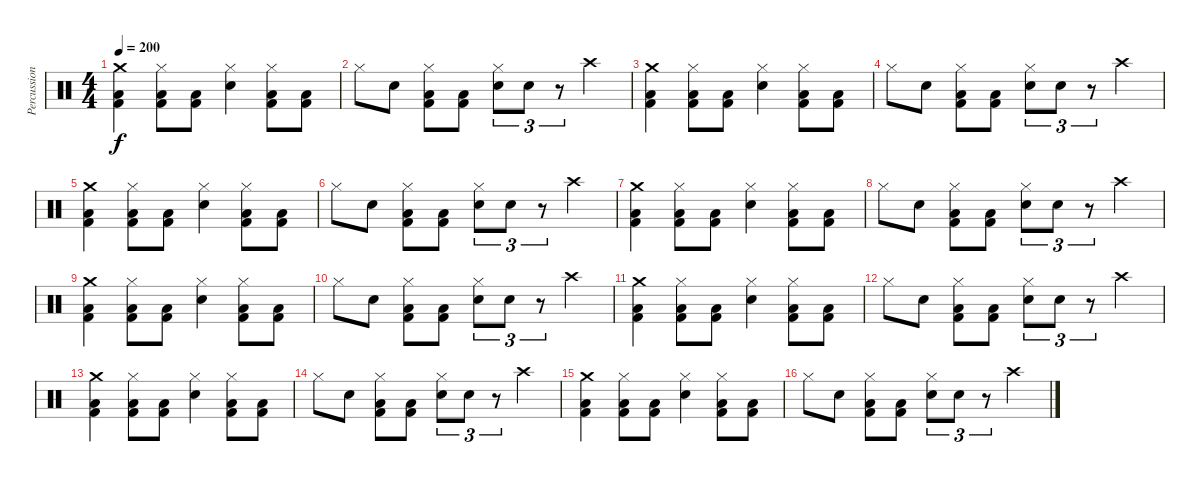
\track ("Percussions" "Percussion") {instrument percussion}
\staff {score}
\articulation defaults
\ts (4 4)
\tempo 200
\clef neutral
\ks c
("Kick (hit) 2" "Low Floor Tom (hit)" "Crash medium (hit)").4{dy f} ("Kick (hit) 2" "Low Floor Tom (hit)" "Hi-Hat (closed)").8 ("Kick (hit) 2" "Low Floor Tom (hit)").8 ("Snare (hit) 2" "Hi-Hat (closed)").4 ("Kick (hit) 2" "Low Floor Tom (hit)" "Hi-Hat (closed)").8 ("Kick (hit) 2" "Low Floor Tom (hit)").8 |
"Hi-Hat (closed)".8 "Snare (hit) 2".8 ("Kick (hit) 2" "Low Floor Tom (hit)" "Hi-Hat (closed)").8 ("Kick (hit) 2" "Low Floor Tom (hit)").8 ("Snare (hit) 2" "Hi-Hat (closed)").8{tu (3 2)} "Snare (hit) 2".8{tu (3 2)} r.8{tu (3 2)} "Crash high (hit)".4 |
("Kick (hit) 2" "Low Floor Tom (hit)" "Crash medium (hit)").4 ("Kick (hit) 2" "Low Floor Tom (hit)" "Hi-Hat (closed)").8 ("Kick (hit) 2" "Low Floor Tom (hit)").8 ("Snare (hit) 2" "Hi-Hat (closed)").4 ("Kick (hit) 2" "Low Floor Tom (hit)" "Hi-Hat (closed)").8 ("Kick (hit) 2" "Low Floor Tom (hit)").8 |
"Hi-Hat (closed)".8 "Snare (hit) 2".8 ("Kick (hit) 2" "Low Floor Tom (hit)" "Hi-Hat (closed)").8 ("Kick (hit) 2" "Low Floor Tom (hit)").8 ("Snare (hit) 2" "Hi-Hat (closed)").8{tu (3 2)} "Snare (hit) 2".8{tu (3 2)} r.8{tu (3 2)} "Crash high (hit)".4 |
("Kick (hit) 2" "Low Floor Tom (hit)" "Crash medium (hit)").4 ("Kick (hit) 2" "Low Floor Tom (hit)" "Hi-Hat (closed)").8 ("Kick (hit) 2" "Low Floor Tom (hit)").8 ("Snare (hit) 2" "Hi-Hat (closed)").4 ("Kick (hit) 2" "Low Floor Tom (hit)" "Hi-Hat (closed)").8 ("Kick (hit) 2" "Low Floor Tom (hit)").8 |
"Hi-Hat (closed)".8 "Snare (hit) 2".8 ("Kick (hit) 2" "Low Floor Tom (hit)" "Hi-Hat (closed)").8 ("Kick (hit) 2" "Low Floor Tom (hit)").8 ("Snare (hit) 2" "Hi-Hat (closed)").8{tu (3 2)} "Snare (hit) 2".8{tu (3 2)} r.8{tu (3 2)} "Crash high (hit)".4 |
("Kick (hit) 2" "Low Floor Tom (hit)" "Crash medium (hit)").4 ("Kick (hit) 2" "Low Floor Tom (hit)" "Hi-Hat (closed)").8 ("Kick (hit) 2" "Low Floor Tom (hit)").8 ("Snare (hit) 2" "Hi-Hat (closed)").4 ("Kick (hit) 2" "Low Floor Tom (hit)" "Hi-Hat (closed)").8 ("Kick (hit) 2" "Low Floor Tom (hit)").8 |
"Hi-Hat (closed)".8 "Snare (hit) 2".8 ("Kick (hit) 2" "Low Floor Tom (hit)" "Hi-Hat (closed)").8 ("Kick (hit) 2" "Low Floor Tom (hit)").8 ("Snare (hit) 2" "Hi-Hat (closed)").8{tu (3 2)} "Snare (hit) 2".8{tu (3 2)} r.8{tu (3 2)} "Crash high (hit)".4 |
("Kick (hit) 2" "Low Floor Tom (hit)" "Crash medium (hit)").4 ("Kick (hit) 2" "Low Floor Tom (hit)" "Hi-Hat (closed)").8 ("Kick (hit) 2" "Low Floor Tom (hit)").8 ("Snare (hit) 2" "Hi-Hat (closed)").4 ("Kick (hit) 2" "Low Floor Tom (hit)" "Hi-Hat (closed)").8 ("Kick (hit) 2" "Low Floor Tom (hit)").8 |
"Hi-Hat (closed)".8 "Snare (hit) 2".8 ("Kick (hit) 2" "Low Floor Tom (hit)" "Hi-Hat (closed)").8 ("Kick (hit) 2" "Low Floor Tom (hit)").8 ("Snare (hit) 2" "Hi-Hat (closed)").8{tu (3 2)} "Snare (hit) 2".8{tu (3 2)} r.8{tu (3 2)} "Crash high (hit)".4 |
("Kick (hit) 2" "Low Floor Tom (hit)" "Crash medium (hit)").4 ("Kick (hit) 2" "Low Floor Tom (hit)" "Hi-Hat (closed)").8 ("Kick (hit) 2" "Low Floor Tom (hit)").8 ("Snare (hit) 2" "Hi-Hat (closed)").4 ("Kick (hit) 2" "Low Floor Tom (hit)" "Hi-Hat (closed)").8 ("Kick (hit) 2" "Low Floor Tom (hit)").8 |
"Hi-Hat (closed)".8 "Snare (hit) 2".8 ("Kick (hit) 2" "Low Floor Tom (hit)" "Hi-Hat (closed)").8 ("Kick (hit) 2" "Low Floor Tom (hit)").8 ("Snare (hit) 2" "Hi-Hat (closed)").8{tu (3 2)} "Snare (hit) 2".8{tu (3 2)} r.8{tu (3 2)} "Crash high (hit)".4 |
("Kick (hit) 2" "Low Floor Tom (hit)" "Crash medium (hit)").4 ("Kick (hit) 2" "Low Floor Tom (hit)" "Hi-Hat (closed)").8 ("Kick (hit) 2" "Low Floor Tom (hit)").8 ("Snare (hit) 2" "Hi-Hat (closed)").4 ("Kick (hit) 2" "Low Floor Tom (hit)" "Hi-Hat (closed)").8 ("Kick (hit) 2" "Low Floor Tom (hit)").8 |
"Hi-Hat (closed)".8 "Snare (hit) 2".8 ("Kick (hit) 2" "Low Floor Tom (hit)" "Hi-Hat (closed)").8 ("Kick (hit) 2" "Low Floor Tom (hit)").8 ("Snare (hit) 2" "Hi-Hat (closed)").8{tu (3 2)} "Snare (hit) 2".8{tu (3 2)} r.8{tu (3 2)} "Crash high (hit)".4 |
("Kick (hit) 2" "Low Floor Tom (hit)" "Crash medium (hit)").4 ("Kick (hit) 2" "Low Floor Tom (hit)" "Hi-Hat (closed)").8 ("Kick (hit) 2" "Low Floor Tom (hit)").8 ("Snare (hit) 2" "Hi-Hat (closed)").4 ("Kick (hit) 2" "Low Floor Tom (hit)" "Hi-Hat (closed)").8 ("Kick (hit) 2" "Low Floor Tom (hit)").8 |
"Hi-Hat (closed)".8 "Snare (hit) 2".8 ("Kick (hit) 2" "Low Floor Tom (hit)" "Hi-Hat (closed)").8 ("Kick (hit) 2" "Low Floor Tom (hit)").8 ("Snare (hit) 2" "Hi-Hat (closed)").8{tu (3 2)} "Snare (hit) 2".8{tu (3 2)} r.8{tu (3 2)} "Crash high (hit)".4
